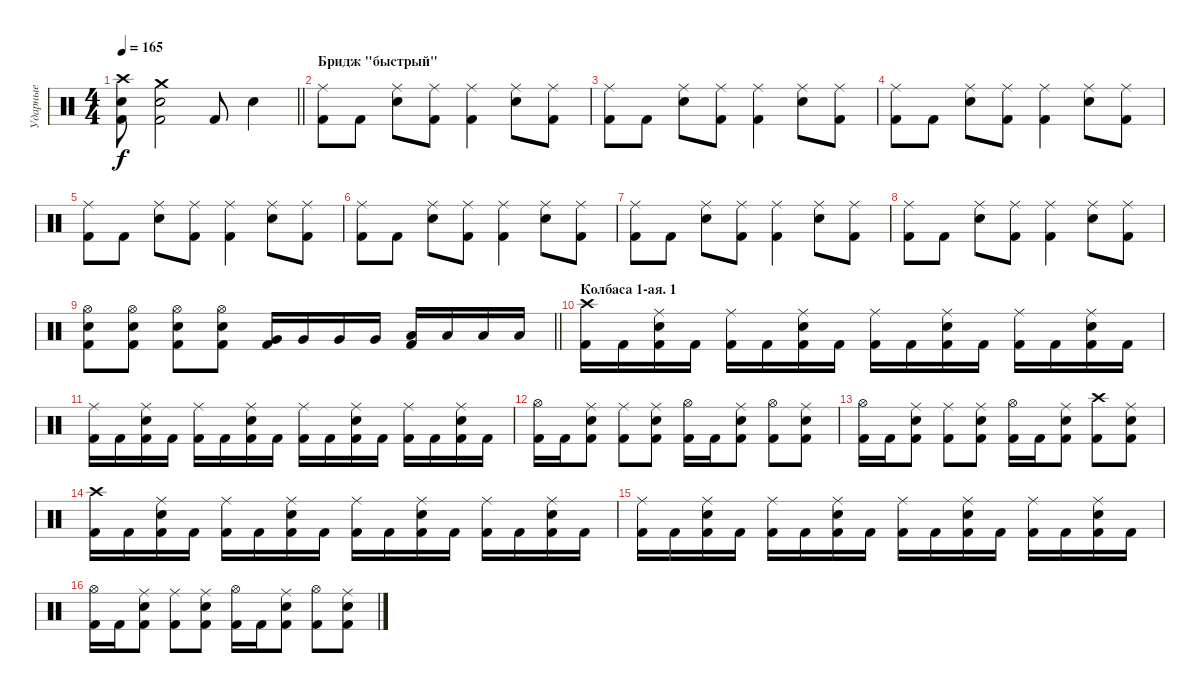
\track ("Ударные" "Ударные") {instrument percussion}
\staff {score}
\articulation defaults
\ts (4 4)
\tempo 165
\clef neutral
\barLineRight lightlight
\ks c
("Crash high (hit)" "Electric Snare (hit)" "Kick (hit) 2").8{dy f} ("Crash medium (hit)" "Electric Snare (hit)" "Kick (hit) 2").2 "Kick (hit) 2".8 "Electric Snare (hit)".4 |
\section ("" "Бридж \"быстрый\"")
("Ride (middle)" "Kick (hit) 2").8 "Kick (hit) 2".8 ("Ride (middle)" "Electric Snare (hit)").8 ("Ride (middle)" "Kick (hit) 2").8 ("Ride (middle)" "Kick (hit) 2").4 ("Ride (middle)" "Electric Snare (hit)").8 ("Ride (middle)" "Kick (hit) 2").8 |
("Ride (middle)" "Kick (hit) 2").8 "Kick (hit) 2".8 ("Ride (middle)" "Electric Snare (hit)").8 ("Ride (middle)" "Kick (hit) 2").8 ("Ride (middle)" "Kick (hit) 2").4 ("Ride (middle)" "Electric Snare (hit)").8 ("Ride (middle)" "Kick (hit) 2").8 |
("Ride (middle)" "Kick (hit) 2").8 "Kick (hit) 2".8 ("Ride (middle)" "Electric Snare (hit)").8 ("Ride (middle)" "Kick (hit) 2").8 ("Ride (middle)" "Kick (hit) 2").4 ("Ride (middle)" "Electric Snare (hit)").8 ("Ride (middle)" "Kick (hit) 2").8 |
("Ride (middle)" "Kick (hit) 2").8 "Kick (hit) 2".8 ("Ride (middle)" "Electric Snare (hit)").8 ("Ride (middle)" "Kick (hit) 2").8 ("Ride (middle)" "Kick (hit) 2").4 ("Ride (middle)" "Electric Snare (hit)").8 ("Ride (middle)" "Kick (hit) 2").8 |
("Ride (middle)" "Kick (hit) 2").8 "Kick (hit) 2".8 ("Ride (middle)" "Electric Snare (hit)").8 ("Ride (middle)" "Kick (hit) 2").8 ("Ride (middle)" "Kick (hit) 2").4 ("Ride (middle)" "Electric Snare (hit)").8 ("Ride (middle)" "Kick (hit) 2").8 |
("Ride (middle)" "Kick (hit) 2").8 "Kick (hit) 2".8 ("Ride (middle)" "Electric Snare (hit)").8 ("Ride (middle)" "Kick (hit) 2").8 ("Ride (middle)" "Kick (hit) 2").4 ("Ride (middle)" "Electric Snare (hit)").8 ("Ride (middle)" "Kick (hit) 2").8 |
("Ride (middle)" "Kick (hit) 2").8 "Kick (hit) 2".8 ("Ride (middle)" "Electric Snare (hit)").8 ("Ride (middle)" "Kick (hit) 2").8 ("Ride (middle)" "Kick (hit) 2").4 ("Ride (middle)" "Electric Snare (hit)").8 ("Ride (middle)" "Kick (hit) 2").8 |
\barLineRight lightlight
("Hi-Hat (open)" "Electric Snare (hit)" "Kick (hit) 2").8 ("Hi-Hat (open)" "Electric Snare (hit)" "Kick (hit) 2").8 ("Hi-Hat (open)" "Electric Snare (hit)" "Kick (hit) 2").8 ("Hi-Hat (open)" "Electric Snare (hit)" "Kick (hit) 2").8 ("Very Low Tom (hit)" "Kick (hit) 2").16 "Very Low Tom (hit)".16 "Very Low Tom (hit)".16 "Very Low Tom (hit)".16 ("Low Tom (hit)" "Kick (hit) 2").16 "Low Tom (hit)".16 "Low Tom (hit)".16 "Low Tom (hit)".16 |
\section ("" "Колбаса 1-ая. 1")
("Crash high (hit)" "Kick (hit) 2").16 "Kick (hit) 2".16 ("Ride (middle)" "Electric Snare (hit)" "Kick (hit) 2").16 "Kick (hit) 2".16 ("Ride (middle)" "Kick (hit) 2").16 "Kick (hit) 2".16 ("Ride (middle)" "Electric Snare (hit)" "Kick (hit) 2").16 "Kick (hit) 2".16 ("Ride (middle)" "Kick (hit) 2").16 "Kick (hit) 2".16 ("Ride (middle)" "Electric Snare (hit)" "Kick (hit) 2").16 "Kick (hit) 2".16 ("Ride (middle)" "Kick (hit) 2").16 "Kick (hit) 2".16 ("Ride (middle)" "Electric Snare (hit)" "Kick (hit) 2").16 "Kick (hit) 2".16 |
("Ride (middle)" "Kick (hit) 2").16 "Kick (hit) 2".16 ("Ride (middle)" "Electric Snare (hit)" "Kick (hit) 2").16 "Kick (hit) 2".16 ("Ride (middle)" "Kick (hit) 2").16 "Kick (hit) 2".16 ("Ride (middle)" "Electric Snare (hit)" "Kick (hit) 2").16 "Kick (hit) 2".16 ("Ride (middle)" "Kick (hit) 2").16 "Kick (hit) 2".16 ("Ride (middle)" "Electric Snare (hit)" "Kick (hit) 2").16 "Kick (hit) 2".16 ("Ride (middle)" "Kick (hit) 2").16 "Kick (hit) 2".16 ("Ride (middle)" "Electric Snare (hit)" "Kick (hit) 2").16 "Kick (hit) 2".16 |
("Hi-Hat (open)" "Kick (hit) 2").16 "Kick (hit) 2".16 ("Ride (middle)" "Electric Snare (hit)" "Kick (hit) 2").8 ("Ride (middle)" "Kick (hit) 2").8 ("Ride (middle)" "Electric Snare (hit)" "Kick (hit) 2").8 ("Hi-Hat (open)" "Kick (hit) 2").16 "Kick (hit) 2".16 ("Ride (middle)" "Electric Snare (hit)" "Kick (hit) 2").8 ("Hi-Hat (open)" "Kick (hit) 2").8 ("Ride (middle)" "Electric Snare (hit)" "Kick (hit) 2").8 |
("Hi-Hat (open)" "Kick (hit) 2").16 "Kick (hit) 2".16 ("Ride (middle)" "Electric Snare (hit)" "Kick (hit) 2").8 ("Ride (middle)" "Kick (hit) 2").8 ("Ride (middle)" "Electric Snare (hit)" "Kick (hit) 2").8 ("Hi-Hat (open)" "Kick (hit) 2").16 "Kick (hit) 2".16 ("Ride (middle)" "Electric Snare (hit)" "Kick (hit) 2").8 ("Crash high (hit)" "Kick (hit) 2").8 ("Ride (middle)" "Electric Snare (hit)" "Kick (hit) 2").8 |
("Crash high (hit)" "Kick (hit) 2").16 "Kick (hit) 2".16 ("Ride (middle)" "Electric Snare (hit)" "Kick (hit) 2").16 "Kick (hit) 2".16 ("Ride (middle)" "Kick (hit) 2").16 "Kick (hit) 2".16 ("Ride (middle)" "Electric Snare (hit)" "Kick (hit) 2").16 "Kick (hit) 2".16 ("Ride (middle)" "Kick (hit) 2").16 "Kick (hit) 2".16 ("Ride (middle)" "Electric Snare (hit)" "Kick (hit) 2").16 "Kick (hit) 2".16 ("Ride (middle)" "Kick (hit) 2").16 "Kick (hit) 2".16 ("Ride (middle)" "Electric Snare (hit)" "Kick (hit) 2").16 "Kick (hit) 2".16 |
("Ride (middle)" "Kick (hit) 2").16 "Kick (hit) 2".16 ("Ride (middle)" "Electric Snare (hit)" "Kick (hit) 2").16 "Kick (hit) 2".16 ("Ride (middle)" "Kick (hit) 2").16 "Kick (hit) 2".16 ("Ride (middle)" "Electric Snare (hit)" "Kick (hit) 2").16 "Kick (hit) 2".16 ("Ride (middle)" "Kick (hit) 2").16 "Kick (hit) 2".16 ("Ride (middle)" "Electric Snare (hit)" "Kick (hit) 2").16 "Kick (hit) 2".16 ("Ride (middle)" "Kick (hit) 2").16 "Kick (hit) 2".16 ("Ride (middle)" "Electric Snare (hit)" "Kick (hit) 2").16 "Kick (hit) 2".16 |
("Hi-Hat (open)" "Kick (hit) 2").16 "Kick (hit) 2".16 ("Ride (middle)" "Electric Snare (hit)" "Kick (hit) 2").8 ("Ride (middle)" "Kick (hit) 2").8 ("Ride (middle)" "Electric Snare (hit)" "Kick (hit) 2").8 ("Hi-Hat (open)" "Kick (hit) 2").16 "Kick (hit) 2".16 ("Ride (middle)" "Electric Snare (hit)" "Kick (hit) 2").8 ("Hi-Hat (open)" "Kick (hit) 2").8 ("Ride (middle)" "Electric Snare (hit)" "Kick (hit) 2").8
